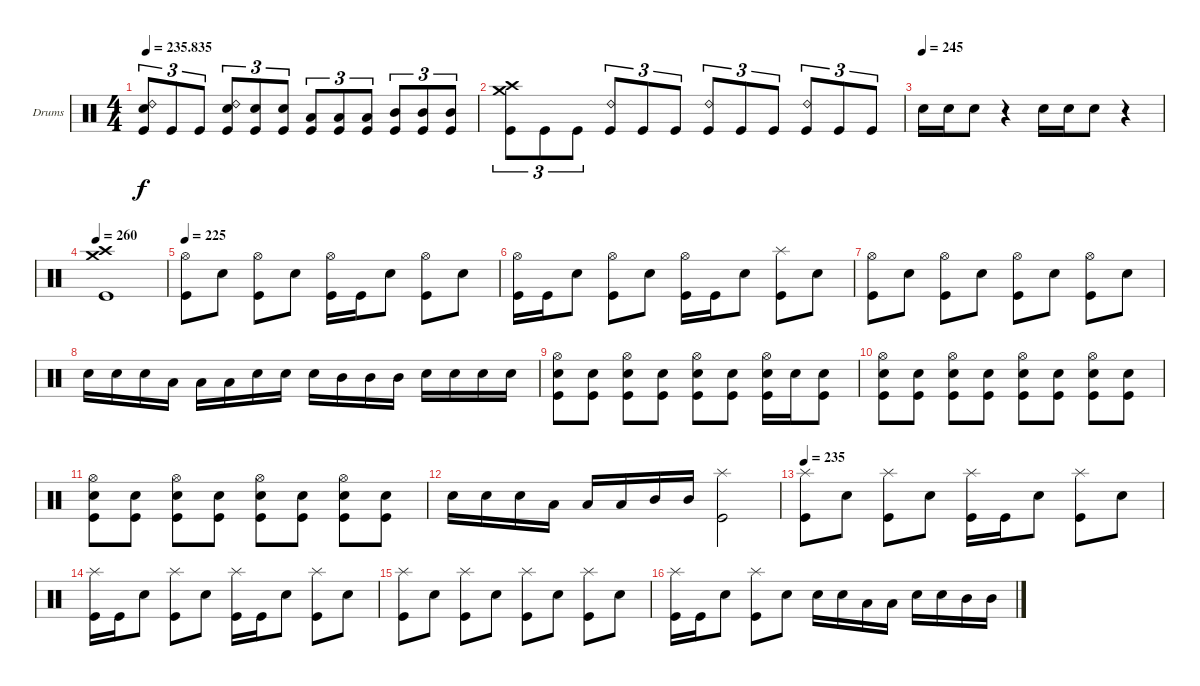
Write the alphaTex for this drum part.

\bracketExtendMode groupsimilarinstruments
\firstSystemTrackNameOrientation horizontal
\otherSystemsTrackNameOrientation horizontal
\track ("Drumkit" "Drums") {instrument percussion}
\staff {score}
\articulation defaults
\ts (4 4)
\tempo
235.835
\accidentals auto
\clef neutral
\ottava regular
\simile none
\ks c
("Ride (bell) 2" "Snare (hit) 2" "Kick (hit)").8{tu (3 2) dy f} "Kick (hit)".8{tu (3 2)} "Kick (hit)".8{tu (3 2)} ("Ride (bell) 2" "Snare (hit) 2" "Kick (hit)").8{tu (3 2)} ("Snare (hit) 2" "Kick (hit)").8{tu (3 2)} ("Snare (hit) 2" "Kick (hit)").8{tu (3 2)} ("Low Tom (hit)" "Kick (hit)").8{tu (3 2)} ("Low Tom (hit)" "Kick (hit)").8{tu (3 2)} ("Low Tom (hit)" "Kick (hit)").8{tu (3 2)} ("Mid Tom (hit)" "Kick (hit)").8{tu (3 2)} ("Mid Tom (hit)" "Kick (hit)").8{tu (3 2)} ("Mid Tom (hit)" "Kick (hit)").8{tu (3 2)} |
("Crash high (hit)" "Crash medium (hit)" "Kick (hit)").8{tu (3 2)} "Kick (hit)".8{tu (3 2)} "Kick (hit)".8{tu (3 2)} ("Ride (bell) 2" "Kick (hit)").8{tu (3 2)} "Kick (hit)".8{tu (3 2)} "Kick (hit)".8{tu (3 2)} ("Ride (bell) 2" "Kick (hit)").8{tu (3 2)} "Kick (hit)".8{tu (3 2)} "Kick (hit)".8{tu (3 2)} ("Ride (bell) 2" "Kick (hit)").8{tu (3 2)} "Kick (hit)".8{tu (3 2)} "Kick (hit)".8{tu (3 2)} |
\tempo (245)
"Snare (hit) 2".16 "Snare (hit) 2".16 "Snare (hit) 2".8 r.4 "Snare (hit) 2".16 "Snare (hit) 2".16 "Snare (hit) 2".8 r.4 |
\tempo 260
("Crash high (hit)" "Crash medium (hit)" "Kick (hit)").1 |
\tempo 225
("Hi-Hat (open)" "Kick (hit)").8 "Snare (hit) 2".8 ("Hi-Hat (open)" "Kick (hit)").8 "Snare (hit) 2".8 ("Hi-Hat (open)" "Kick (hit)").16 "Kick (hit)".16 "Snare (hit) 2".8 ("Hi-Hat (open)" "Kick (hit)").8 "Snare (hit) 2".8 |
("Hi-Hat (open)" "Kick (hit)").16 "Kick (hit)".16 "Snare (hit) 2".8 ("Hi-Hat (open)" "Kick (hit)").8 "Snare (hit) 2".8 ("Hi-Hat (open)" "Kick (hit)").16 "Kick (hit)".16 "Snare (hit) 2".8 ("Splash (hit)" "Kick (hit)").8 "Snare (hit) 2".8 |
("Hi-Hat (open)" "Kick (hit)").8 "Snare (hit) 2".8 ("Hi-Hat (open)" "Kick (hit)").8 "Snare (hit) 2".8 ("Hi-Hat (open)" "Kick (hit)").8 "Snare (hit) 2".8 ("Hi-Hat (open)" "Kick (hit)").8 "Snare (hit) 2".8 |
"Snare (hit) 2".16 "Snare (hit) 2".16 "Snare (hit) 2".16 "Low Tom (hit)".16 "Low Tom (hit)".16 "Low Tom (hit)".16 "Snare (hit) 2".16 "Snare (hit) 2".16 "Snare (hit) 2".16 "Mid Tom (hit)".16 "Mid Tom (hit)".16 "Mid Tom (hit)".16 "Snare (hit) 2".16 "Snare (hit) 2".16 "Snare (hit) 2".16 "Snare (hit) 2".16 |
("Hi-Hat (open)" "Snare (hit) 2" "Kick (hit)").8 ("Snare (hit) 2" "Kick (hit)").8 ("Hi-Hat (open)" "Snare (hit) 2" "Kick (hit)").8 ("Snare (hit) 2" "Kick (hit)").8 ("Hi-Hat (open)" "Snare (hit) 2" "Kick (hit)").8 ("Snare (hit) 2" "Kick (hit)").8 ("Hi-Hat (open)" "Snare (hit) 2" "Kick (hit)").16 "Snare (hit) 2".16 ("Snare (hit) 2" "Kick (hit)").8 |
("Hi-Hat (open)" "Snare (hit) 2" "Kick (hit)").8 ("Snare (hit) 2" "Kick (hit)").8 ("Hi-Hat (open)" "Snare (hit) 2" "Kick (hit)").8 ("Snare (hit) 2" "Kick (hit)").8 ("Hi-Hat (open)" "Snare (hit) 2" "Kick (hit)").8 ("Snare (hit) 2" "Kick (hit)").8 ("Hi-Hat (open)" "Snare (hit) 2" "Kick (hit)").8 ("Snare (hit) 2" "Kick (hit)").8 |
("Hi-Hat (open)" "Snare (hit) 2" "Kick (hit)").8 ("Snare (hit) 2" "Kick (hit)").8 ("Hi-Hat (open)" "Snare (hit) 2" "Kick (hit)").8 ("Snare (hit) 2" "Kick (hit)").8 ("Hi-Hat (open)" "Snare (hit) 2" "Kick (hit)").8 ("Snare (hit) 2" "Kick (hit)").8 ("Hi-Hat (open)" "Snare (hit) 2" "Kick (hit)").8 ("Snare (hit) 2" "Kick (hit)").8 |
"Snare (hit) 2".16 "Snare (hit) 2".16 "Snare (hit) 2".16 "Low Tom (hit)".16 "Low Tom (hit)".16 "Low Tom (hit)".16 "Mid Tom (hit)".16 "Mid Tom (hit)".16 ("Splash (hit)" "Kick (hit)").2 |
\tempo 235
("Splash (hit)" "Kick (hit)").8 "Snare (hit) 2".8 ("Splash (hit)" "Kick (hit)").8 "Snare (hit) 2".8 ("Splash (hit)" "Kick (hit)").16 "Kick (hit)".16 "Snare (hit) 2".8 ("Splash (hit)" "Kick (hit)").8 "Snare (hit) 2".8 |
("Splash (hit)" "Kick (hit)").16 "Kick (hit)".16 "Snare (hit) 2".8 ("Splash (hit)" "Kick (hit)").8 "Snare (hit) 2".8 ("Splash (hit)" "Kick (hit)").16 "Kick (hit)".16 "Snare (hit) 2".8 ("Splash (hit)" "Kick (hit)").8 "Snare (hit) 2".8 |
("Splash (hit)" "Kick (hit)").8 "Snare (hit) 2".8 ("Splash (hit)" "Kick (hit)").8 "Snare (hit) 2".8 ("Splash (hit)" "Kick (hit)").8 "Snare (hit) 2".8 ("Splash (hit)" "Kick (hit)").8 "Snare (hit) 2".8 |
("Splash (hit)" "Kick (hit)").16 "Kick (hit)".16 "Snare (hit) 2".8 ("Splash (hit)" "Kick (hit)").8 "Snare (hit) 2".8 "Snare (hit) 2".16 "Snare (hit) 2".16 "Low Tom (hit)".16 "Low Tom (hit)".16 "Snare (hit) 2".16 "Snare (hit) 2".16 "Mid Tom (hit)".16 "Mid Tom (hit)".16
